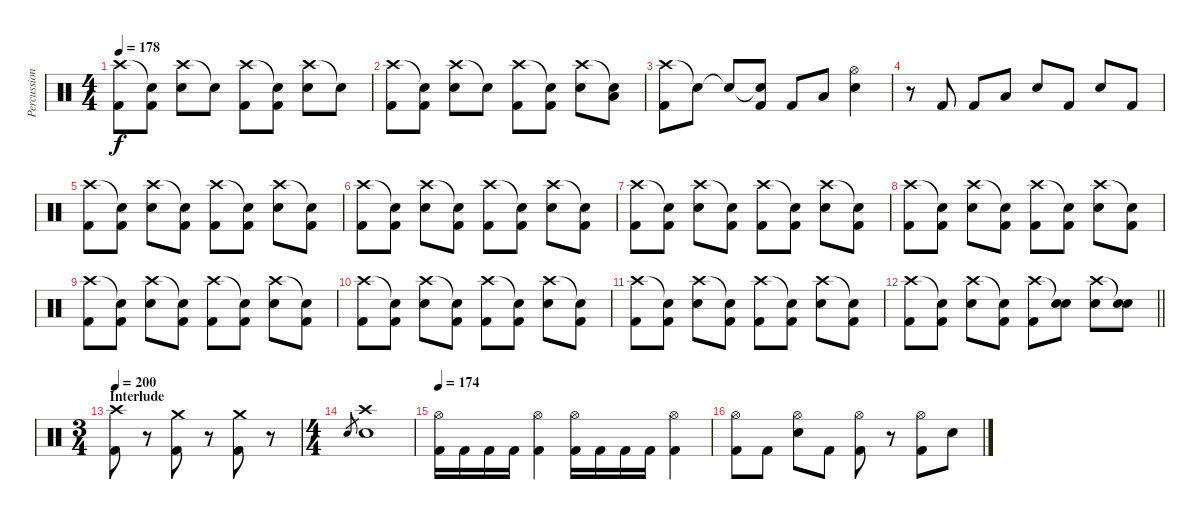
\track ("Percussion" "Percussion") {instrument percussion}
\staff {score}
\articulation defaults
\ts (4 4)
\tempo 178
\clef neutral
\ks c
("Crash high (hit)" "Kick (hit) 2").8{dy f} ("Snare (hit)"{t} "Kick (hit) 2").8 ("Crash high (hit)" "Snare (hit) 2").8 "Snare (hit)"{t}.8 ("Crash high (hit)" "Kick (hit) 2").8 ("Snare (hit)"{t} "Kick (hit) 2").8 ("Crash high (hit)" "Snare (hit) 2").8 "Snare (hit)"{t}.8 |
("Crash high (hit)" "Kick (hit) 2").8 ("Snare (hit)"{t} "Kick (hit) 2").8 ("Crash high (hit)" "Snare (hit) 2").8 "Snare (hit)"{t}.8 ("Crash high (hit)" "Kick (hit) 2").8 ("Snare (hit)"{t} "Kick (hit) 2").8 ("Crash high (hit)" "Snare (hit) 2").8 ("Snare (hit)"{t} "Low Tom (hit)").8 |
("Crash high (hit)" "Kick (hit) 2").8 "Snare (hit)"{t}.8 "Snare (hit)"{t}.8 ("Snare (hit)"{t} "Kick (hit) 2").8 "Kick (hit) 2".8 "Low Tom (hit)".8 ("Hi-Hat (open)" "Snare (hit) 2").4 |
r.8 "Kick (hit) 2".8 "Kick (hit) 2".8 "Low Tom (hit)".8 "Snare (hit) 2".8 "Kick (hit) 2".8 "Snare (hit) 2".8 "Kick (hit) 2".8 |
("Crash high (hit)" "Kick (hit) 2").8 ("Snare (hit)"{t} "Kick (hit) 2").8 ("Crash high (hit)" "Snare (hit) 2").8 ("Snare (hit)"{t} "Kick (hit) 2").8 ("Crash high (hit)" "Kick (hit) 2").8 ("Snare (hit)"{t} "Kick (hit) 2").8 ("Crash high (hit)" "Snare (hit) 2").8 ("Snare (hit)"{t} "Kick (hit) 2").8 |
("Crash high (hit)" "Kick (hit) 2").8 ("Snare (hit)"{t} "Kick (hit) 2").8 ("Crash high (hit)" "Snare (hit) 2").8 ("Snare (hit)"{t} "Kick (hit) 2").8 ("Crash high (hit)" "Kick (hit) 2").8 ("Snare (hit)"{t} "Kick (hit) 2").8 ("Crash high (hit)" "Snare (hit) 2").8 ("Snare (hit)"{t} "Kick (hit) 2").8 |
("Crash high (hit)" "Kick (hit) 2").8 ("Snare (hit)"{t} "Kick (hit) 2").8 ("Crash high (hit)" "Snare (hit) 2").8 ("Snare (hit)"{t} "Kick (hit) 2").8 ("Crash high (hit)" "Kick (hit) 2").8 ("Snare (hit)"{t} "Kick (hit) 2").8 ("Crash high (hit)" "Snare (hit) 2").8 ("Snare (hit)"{t} "Kick (hit) 2").8 |
("Crash high (hit)" "Kick (hit) 2").8 ("Snare (hit)"{t} "Kick (hit) 2").8 ("Crash high (hit)" "Snare (hit) 2").8 ("Snare (hit)"{t} "Kick (hit) 2").8 ("Crash high (hit)" "Kick (hit) 2").8 ("Snare (hit)"{t} "Kick (hit) 2").8 ("Crash high (hit)" "Snare (hit) 2").8 ("Snare (hit)"{t} "Kick (hit) 2").8 |
("Crash high (hit)" "Kick (hit) 2").8 ("Snare (hit)"{t} "Kick (hit) 2").8 ("Crash high (hit)" "Snare (hit) 2").8 ("Snare (hit)"{t} "Kick (hit) 2").8 ("Crash high (hit)" "Kick (hit) 2").8 ("Snare (hit)"{t} "Kick (hit) 2").8 ("Crash high (hit)" "Snare (hit) 2").8 ("Snare (hit)"{t} "Kick (hit) 2").8 |
("Crash high (hit)" "Kick (hit) 2").8 ("Snare (hit)"{t} "Kick (hit) 2").8 ("Crash high (hit)" "Snare (hit) 2").8 ("Snare (hit)"{t} "Kick (hit) 2").8 ("Crash high (hit)" "Kick (hit) 2").8 ("Snare (hit)"{t} "Kick (hit) 2").8 ("Crash high (hit)" "Snare (hit) 2").8 ("Snare (hit)"{t} "Kick (hit) 2").8 |
("Crash high (hit)" "Kick (hit) 2").8 ("Snare (hit)"{t} "Kick (hit) 2").8 ("Crash high (hit)" "Snare (hit) 2").8 ("Snare (hit)"{t} "Kick (hit) 2").8 ("Crash high (hit)" "Kick (hit) 2").8 ("Snare (hit)"{t} "Kick (hit) 2").8 ("Crash high (hit)" "Snare (hit) 2").8 ("Snare (hit)"{t} "Kick (hit) 2").8 |
\barLineRight lightlight
("Crash high (hit)" "Kick (hit) 2").8 ("Snare (hit)"{t} "Kick (hit) 2").8 ("Crash high (hit)" "Snare (hit) 2").8 ("Snare (hit)"{t} "Kick (hit) 2").8 ("Crash high (hit)" "Kick (hit) 2").8 ("Snare (hit)"{t} "Snare (hit) 2").8 ("Crash high (hit)" "Snare (hit) 2").8 ("Snare (hit)"{t} "Snare (hit) 2").8 |
\ts (3 4)
\section ("" "Interlude")
\tempo 200
("Crash high (hit)" "Kick (hit) 2").8 r.8 ("Crash medium (hit)" "Kick (hit) 2").8 r.8 ("Crash medium (hit)" "Kick (hit) 2").8 r.8 |
\ts (4 4)
"Snare (hit) 2".8{gr} ("Crash high (hit)" "Snare (hit) 2").1 |
\tempo 180
\tempo 174
("Hi-Hat (open)" "Kick (hit) 2").16 "Kick (hit) 2".16 "Kick (hit) 2".16 "Kick (hit) 2".16 ("Hi-Hat (open)" "Kick (hit) 2").4 ("Hi-Hat (open)" "Kick (hit) 2").16 "Kick (hit) 2".16 "Kick (hit) 2".16 "Kick (hit) 2".16 ("Hi-Hat (open)" "Kick (hit) 2").4 |
("Hi-Hat (open)" "Kick (hit) 2").8 "Kick (hit) 2".8 ("Hi-Hat (open)" "Snare (hit) 2").8 "Kick (hit) 2".8 ("Hi-Hat (open)" "Kick (hit) 2").8 r.8 ("Hi-Hat (open)" "Kick (hit) 2").8 "Snare (hit) 2".8
